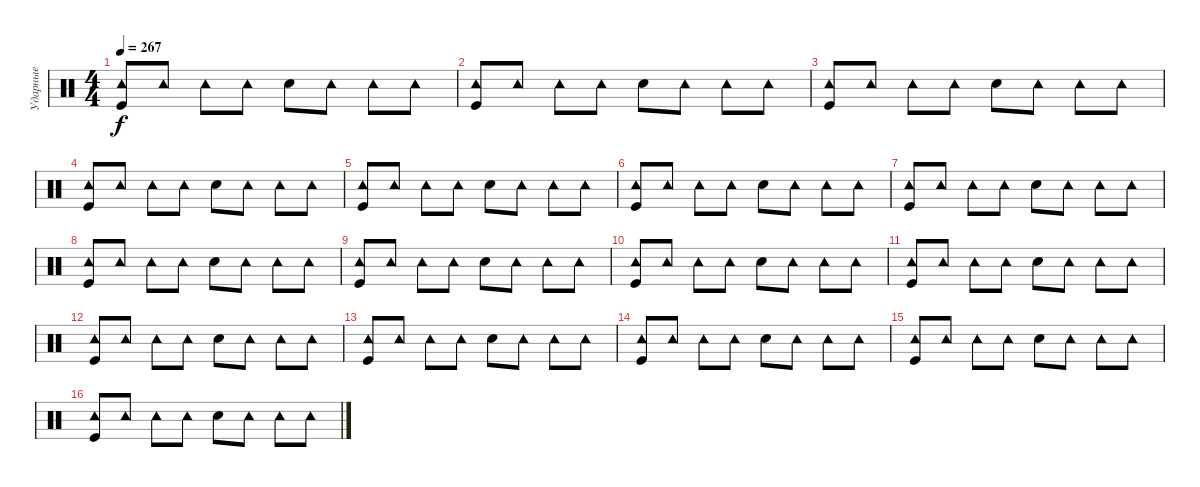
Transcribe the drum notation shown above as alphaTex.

\track ("Ударные" "Ударные") {instrument percussion}
\staff {score}
\articulation defaults
\ts (4 4)
\tempo 267
\clef neutral
\ks c
("Kick (hit)" "Tambourine (hit)").8{dy f} "Tambourine (hit)".8 "Tambourine (hit)".8 "Tambourine (hit)".8 "Snare (hit) 2".8 "Tambourine (hit)".8 "Tambourine (hit)".8 "Tambourine (hit)".8 |
("Kick (hit)" "Tambourine (hit)").8 "Tambourine (hit)".8 "Tambourine (hit)".8 "Tambourine (hit)".8 "Snare (hit) 2".8 "Tambourine (hit)".8 "Tambourine (hit)".8 "Tambourine (hit)".8 |
("Kick (hit)" "Tambourine (hit)").8 "Tambourine (hit)".8 "Tambourine (hit)".8 "Tambourine (hit)".8 "Snare (hit) 2".8 "Tambourine (hit)".8 "Tambourine (hit)".8 "Tambourine (hit)".8 |
("Kick (hit)" "Tambourine (hit)").8 "Tambourine (hit)".8 "Tambourine (hit)".8 "Tambourine (hit)".8 "Snare (hit) 2".8 "Tambourine (hit)".8 "Tambourine (hit)".8 "Tambourine (hit)".8 |
("Kick (hit)" "Tambourine (hit)").8 "Tambourine (hit)".8 "Tambourine (hit)".8 "Tambourine (hit)".8 "Snare (hit) 2".8 "Tambourine (hit)".8 "Tambourine (hit)".8 "Tambourine (hit)".8 |
("Kick (hit)" "Tambourine (hit)").8 "Tambourine (hit)".8 "Tambourine (hit)".8 "Tambourine (hit)".8 "Snare (hit) 2".8 "Tambourine (hit)".8 "Tambourine (hit)".8 "Tambourine (hit)".8 |
("Kick (hit)" "Tambourine (hit)").8 "Tambourine (hit)".8 "Tambourine (hit)".8 "Tambourine (hit)".8 "Snare (hit) 2".8 "Tambourine (hit)".8 "Tambourine (hit)".8 "Tambourine (hit)".8 |
("Kick (hit)" "Tambourine (hit)").8 "Tambourine (hit)".8 "Tambourine (hit)".8 "Tambourine (hit)".8 "Snare (hit) 2".8 "Tambourine (hit)".8 "Tambourine (hit)".8 "Tambourine (hit)".8 |
("Kick (hit)" "Tambourine (hit)").8 "Tambourine (hit)".8 "Tambourine (hit)".8 "Tambourine (hit)".8 "Snare (hit) 2".8 "Tambourine (hit)".8 "Tambourine (hit)".8 "Tambourine (hit)".8 |
("Kick (hit)" "Tambourine (hit)").8 "Tambourine (hit)".8 "Tambourine (hit)".8 "Tambourine (hit)".8 "Snare (hit) 2".8 "Tambourine (hit)".8 "Tambourine (hit)".8 "Tambourine (hit)".8 |
("Kick (hit)" "Tambourine (hit)").8 "Tambourine (hit)".8 "Tambourine (hit)".8 "Tambourine (hit)".8 "Snare (hit) 2".8 "Tambourine (hit)".8 "Tambourine (hit)".8 "Tambourine (hit)".8 |
("Kick (hit)" "Tambourine (hit)").8 "Tambourine (hit)".8 "Tambourine (hit)".8 "Tambourine (hit)".8 "Snare (hit) 2".8 "Tambourine (hit)".8 "Tambourine (hit)".8 "Tambourine (hit)".8 |
("Kick (hit)" "Tambourine (hit)").8 "Tambourine (hit)".8 "Tambourine (hit)".8 "Tambourine (hit)".8 "Snare (hit) 2".8 "Tambourine (hit)".8 "Tambourine (hit)".8 "Tambourine (hit)".8 |
("Kick (hit)" "Tambourine (hit)").8 "Tambourine (hit)".8 "Tambourine (hit)".8 "Tambourine (hit)".8 "Snare (hit) 2".8 "Tambourine (hit)".8 "Tambourine (hit)".8 "Tambourine (hit)".8 |
("Kick (hit)" "Tambourine (hit)").8 "Tambourine (hit)".8 "Tambourine (hit)".8 "Tambourine (hit)".8 "Snare (hit) 2".8 "Tambourine (hit)".8 "Tambourine (hit)".8 "Tambourine (hit)".8 |
("Kick (hit)" "Tambourine (hit)").8 "Tambourine (hit)".8 "Tambourine (hit)".8 "Tambourine (hit)".8 "Snare (hit) 2".8 "Tambourine (hit)".8 "Tambourine (hit)".8 "Tambourine (hit)".8
